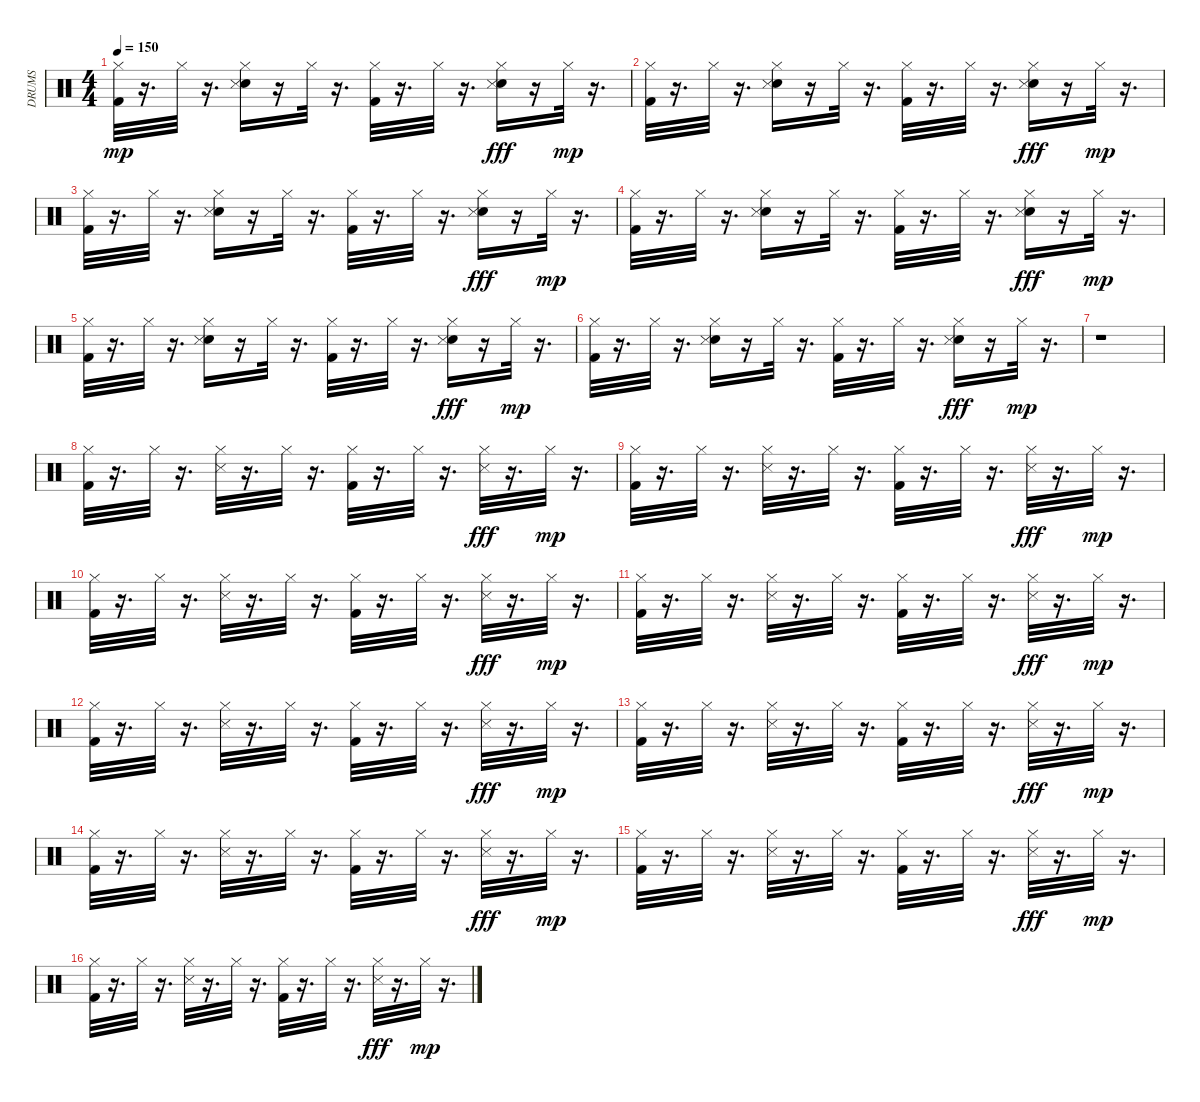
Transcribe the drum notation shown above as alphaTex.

\track ("DRUMS" "DRUMS") {instrument percussion}
\staff {score}
\articulation defaults
\ts (4 4)
\tempo 150
\clef neutral
\ks c
("Hi-Hat (closed)" "Kick (hit) 2").32{dy mp} r.16{d} "Hi-Hat (closed)".32 r.16{d} ("Snare (hit) 2" "Snare (side stick) 3" "Hi-Hat (closed)").16 r.16 "Hi-Hat (closed)".32 r.16{d} ("Kick (hit) 2" "Hi-Hat (closed)").32 r.16{d} "Hi-Hat (closed)".32 r.16{d} ("Snare (hit) 2" "Hi-Hat (closed)" "Snare (side stick) 3").16{dy fff} r.16 "Hi-Hat (closed)".32{dy mp} r.16{d} |
("Hi-Hat (closed)" "Kick (hit) 2").32 r.16{d} "Hi-Hat (closed)".32 r.16{d} ("Snare (hit) 2" "Snare (side stick) 3" "Hi-Hat (closed)").16 r.16 "Hi-Hat (closed)".32 r.16{d} ("Kick (hit) 2" "Hi-Hat (closed)").32 r.16{d} "Hi-Hat (closed)".32 r.16{d} ("Snare (hit) 2" "Hi-Hat (closed)" "Snare (side stick) 3").16{dy fff} r.16 "Hi-Hat (closed)".32{dy mp} r.16{d} |
("Hi-Hat (closed)" "Kick (hit) 2").32 r.16{d} "Hi-Hat (closed)".32 r.16{d} ("Snare (hit) 2" "Snare (side stick) 3" "Hi-Hat (closed)").16 r.16 "Hi-Hat (closed)".32 r.16{d} ("Kick (hit) 2" "Hi-Hat (closed)").32 r.16{d} "Hi-Hat (closed)".32 r.16{d} ("Snare (hit) 2" "Hi-Hat (closed)" "Snare (side stick) 3").16{dy fff} r.16 "Hi-Hat (closed)".32{dy mp} r.16{d} |
("Hi-Hat (closed)" "Kick (hit) 2").32 r.16{d} "Hi-Hat (closed)".32 r.16{d} ("Snare (hit) 2" "Snare (side stick) 3" "Hi-Hat (closed)").16 r.16 "Hi-Hat (closed)".32 r.16{d} ("Kick (hit) 2" "Hi-Hat (closed)").32 r.16{d} "Hi-Hat (closed)".32 r.16{d} ("Snare (hit) 2" "Hi-Hat (closed)" "Snare (side stick) 3").16{dy fff} r.16 "Hi-Hat (closed)".32{dy mp} r.16{d} |
("Hi-Hat (closed)" "Kick (hit) 2").32 r.16{d} "Hi-Hat (closed)".32 r.16{d} ("Snare (hit) 2" "Snare (side stick) 3" "Hi-Hat (closed)").16 r.16 "Hi-Hat (closed)".32 r.16{d} ("Kick (hit) 2" "Hi-Hat (closed)").32 r.16{d} "Hi-Hat (closed)".32 r.16{d} ("Snare (hit) 2" "Hi-Hat (closed)" "Snare (side stick) 3").16{dy fff} r.16 "Hi-Hat (closed)".32{dy mp} r.16{d} |
("Hi-Hat (closed)" "Kick (hit) 2").32 r.16{d} "Hi-Hat (closed)".32 r.16{d} ("Snare (hit) 2" "Snare (side stick) 3" "Hi-Hat (closed)").16 r.16 "Hi-Hat (closed)".32 r.16{d} ("Kick (hit) 2" "Hi-Hat (closed)").32 r.16{d} "Hi-Hat (closed)".32 r.16{d} ("Snare (hit) 2" "Hi-Hat (closed)" "Snare (side stick) 3").16{dy fff} r.16 "Hi-Hat (closed)".32{dy mp} r.16{d} |
r.1 |
("Hi-Hat (closed)" "Kick (hit) 2").32 r.16{d} "Hi-Hat (closed)".32 r.16{d} ("Snare (side stick) 3" "Hi-Hat (closed)").32 r.16{d} "Hi-Hat (closed)".32 r.16{d} ("Kick (hit) 2" "Hi-Hat (closed)").32 r.16{d} "Hi-Hat (closed)".32 r.16{d} ("Hi-Hat (closed)" "Snare (side stick) 3").32{dy fff} r.16{d} "Hi-Hat (closed)".32{dy mp} r.16{d} |
("Hi-Hat (closed)" "Kick (hit) 2").32 r.16{d} "Hi-Hat (closed)".32 r.16{d} ("Snare (side stick) 3" "Hi-Hat (closed)").32 r.16{d} "Hi-Hat (closed)".32 r.16{d} ("Kick (hit) 2" "Hi-Hat (closed)").32 r.16{d} "Hi-Hat (closed)".32 r.16{d} ("Hi-Hat (closed)" "Snare (side stick) 3").32{dy fff} r.16{d} "Hi-Hat (closed)".32{dy mp} r.16{d} |
("Hi-Hat (closed)" "Kick (hit) 2").32 r.16{d} "Hi-Hat (closed)".32 r.16{d} ("Snare (side stick) 3" "Hi-Hat (closed)").32 r.16{d} "Hi-Hat (closed)".32 r.16{d} ("Kick (hit) 2" "Hi-Hat (closed)").32 r.16{d} "Hi-Hat (closed)".32 r.16{d} ("Hi-Hat (closed)" "Snare (side stick) 3").32{dy fff} r.16{d} "Hi-Hat (closed)".32{dy mp} r.16{d} |
("Hi-Hat (closed)" "Kick (hit) 2").32 r.16{d} "Hi-Hat (closed)".32 r.16{d} ("Snare (side stick) 3" "Hi-Hat (closed)").32 r.16{d} "Hi-Hat (closed)".32 r.16{d} ("Kick (hit) 2" "Hi-Hat (closed)").32 r.16{d} "Hi-Hat (closed)".32 r.16{d} ("Hi-Hat (closed)" "Snare (side stick) 3").32{dy fff} r.16{d} "Hi-Hat (closed)".32{dy mp} r.16{d} |
("Hi-Hat (closed)" "Kick (hit) 2").32 r.16{d} "Hi-Hat (closed)".32 r.16{d} ("Snare (side stick) 3" "Hi-Hat (closed)").32 r.16{d} "Hi-Hat (closed)".32 r.16{d} ("Kick (hit) 2" "Hi-Hat (closed)").32 r.16{d} "Hi-Hat (closed)".32 r.16{d} ("Hi-Hat (closed)" "Snare (side stick) 3").32{dy fff} r.16{d} "Hi-Hat (closed)".32{dy mp} r.16{d} |
("Hi-Hat (closed)" "Kick (hit) 2").32 r.16{d} "Hi-Hat (closed)".32 r.16{d} ("Snare (side stick) 3" "Hi-Hat (closed)").32 r.16{d} "Hi-Hat (closed)".32 r.16{d} ("Kick (hit) 2" "Hi-Hat (closed)").32 r.16{d} "Hi-Hat (closed)".32 r.16{d} ("Hi-Hat (closed)" "Snare (side stick) 3").32{dy fff} r.16{d} "Hi-Hat (closed)".32{dy mp} r.16{d} |
("Hi-Hat (closed)" "Kick (hit) 2").32 r.16{d} "Hi-Hat (closed)".32 r.16{d} ("Snare (side stick) 3" "Hi-Hat (closed)").32 r.16{d} "Hi-Hat (closed)".32 r.16{d} ("Kick (hit) 2" "Hi-Hat (closed)").32 r.16{d} "Hi-Hat (closed)".32 r.16{d} ("Hi-Hat (closed)" "Snare (side stick) 3").32{dy fff} r.16{d} "Hi-Hat (closed)".32{dy mp} r.16{d} |
("Hi-Hat (closed)" "Kick (hit) 2").32 r.16{d} "Hi-Hat (closed)".32 r.16{d} ("Snare (side stick) 3" "Hi-Hat (closed)").32 r.16{d} "Hi-Hat (closed)".32 r.16{d} ("Kick (hit) 2" "Hi-Hat (closed)").32 r.16{d} "Hi-Hat (closed)".32 r.16{d} ("Hi-Hat (closed)" "Snare (side stick) 3").32{dy fff} r.16{d} "Hi-Hat (closed)".32{dy mp} r.16{d} |
("Hi-Hat (closed)" "Kick (hit) 2").32 r.16{d} "Hi-Hat (closed)".32 r.16{d} ("Snare (side stick) 3" "Hi-Hat (closed)").32 r.16{d} "Hi-Hat (closed)".32 r.16{d} ("Kick (hit) 2" "Hi-Hat (closed)").32 r.16{d} "Hi-Hat (closed)".32 r.16{d} ("Hi-Hat (closed)" "Snare (side stick) 3").32{dy fff} r.16{d} "Hi-Hat (closed)".32{dy mp} r.16{d}
